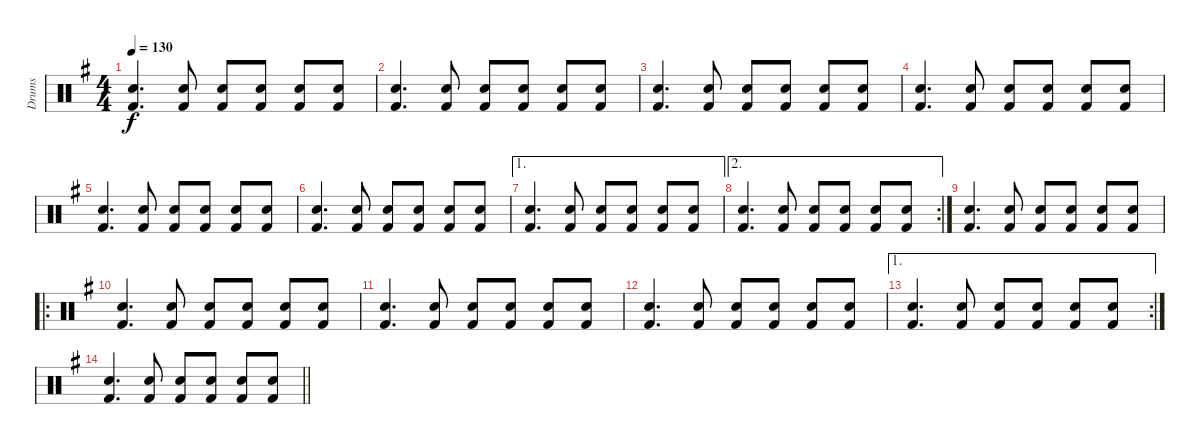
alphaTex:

\track ("Drums" "Drums") {instrument percussion}
\staff {score}
\articulation defaults
\ts (4 4)
\tempo 130
\clef neutral
\ks g
("Snare (hit) 2" "Kick (hit) 2").4{d dy f} ("Snare (hit) 2" "Kick (hit) 2").8 ("Snare (hit) 2" "Kick (hit) 2").8 ("Snare (hit) 2" "Kick (hit) 2").8 ("Snare (hit) 2" "Kick (hit) 2").8 ("Snare (hit) 2" "Kick (hit) 2").8 |
("Snare (hit) 2" "Kick (hit) 2").4{d} ("Snare (hit) 2" "Kick (hit) 2").8 ("Snare (hit) 2" "Kick (hit) 2").8 ("Snare (hit) 2" "Kick (hit) 2").8 ("Snare (hit) 2" "Kick (hit) 2").8 ("Snare (hit) 2" "Kick (hit) 2").8 |
("Snare (hit) 2" "Kick (hit) 2").4{d} ("Snare (hit) 2" "Kick (hit) 2").8 ("Snare (hit) 2" "Kick (hit) 2").8 ("Snare (hit) 2" "Kick (hit) 2").8 ("Snare (hit) 2" "Kick (hit) 2").8 ("Snare (hit) 2" "Kick (hit) 2").8 |
("Snare (hit) 2" "Kick (hit) 2").4{d} ("Snare (hit) 2" "Kick (hit) 2").8 ("Snare (hit) 2" "Kick (hit) 2").8 ("Snare (hit) 2" "Kick (hit) 2").8 ("Snare (hit) 2" "Kick (hit) 2").8 ("Snare (hit) 2" "Kick (hit) 2").8 |
("Snare (hit) 2" "Kick (hit) 2").4{d} ("Snare (hit) 2" "Kick (hit) 2").8 ("Snare (hit) 2" "Kick (hit) 2").8 ("Snare (hit) 2" "Kick (hit) 2").8 ("Snare (hit) 2" "Kick (hit) 2").8 ("Snare (hit) 2" "Kick (hit) 2").8 |
("Snare (hit) 2" "Kick (hit) 2").4{d} ("Snare (hit) 2" "Kick (hit) 2").8 ("Snare (hit) 2" "Kick (hit) 2").8 ("Snare (hit) 2" "Kick (hit) 2").8 ("Snare (hit) 2" "Kick (hit) 2").8 ("Snare (hit) 2" "Kick (hit) 2").8 |
\ae 1
("Snare (hit) 2" "Kick (hit) 2").4{d} ("Snare (hit) 2" "Kick (hit) 2").8 ("Snare (hit) 2" "Kick (hit) 2").8 ("Snare (hit) 2" "Kick (hit) 2").8 ("Snare (hit) 2" "Kick (hit) 2").8 ("Snare (hit) 2" "Kick (hit) 2").8 |
\ae 2
\rc 2
("Snare (hit) 2" "Kick (hit) 2").4{d} ("Snare (hit) 2" "Kick (hit) 2").8 ("Snare (hit) 2" "Kick (hit) 2").8 ("Snare (hit) 2" "Kick (hit) 2").8 ("Snare (hit) 2" "Kick (hit) 2").8 ("Snare (hit) 2" "Kick (hit) 2").8 |
("Snare (hit) 2" "Kick (hit) 2").4{d} ("Snare (hit) 2" "Kick (hit) 2").8 ("Snare (hit) 2" "Kick (hit) 2").8 ("Snare (hit) 2" "Kick (hit) 2").8 ("Snare (hit) 2" "Kick (hit) 2").8 ("Snare (hit) 2" "Kick (hit) 2").8 |
\ro
("Snare (hit) 2" "Kick (hit) 2").4{d} ("Snare (hit) 2" "Kick (hit) 2").8 ("Snare (hit) 2" "Kick (hit) 2").8 ("Snare (hit) 2" "Kick (hit) 2").8 ("Snare (hit) 2" "Kick (hit) 2").8 ("Snare (hit) 2" "Kick (hit) 2").8 |
("Snare (hit) 2" "Kick (hit) 2").4{d} ("Snare (hit) 2" "Kick (hit) 2").8 ("Snare (hit) 2" "Kick (hit) 2").8 ("Snare (hit) 2" "Kick (hit) 2").8 ("Snare (hit) 2" "Kick (hit) 2").8 ("Snare (hit) 2" "Kick (hit) 2").8 |
("Snare (hit) 2" "Kick (hit) 2").4{d} ("Snare (hit) 2" "Kick (hit) 2").8 ("Snare (hit) 2" "Kick (hit) 2").8 ("Snare (hit) 2" "Kick (hit) 2").8 ("Snare (hit) 2" "Kick (hit) 2").8 ("Snare (hit) 2" "Kick (hit) 2").8 |
\ae 1
\rc 2
("Snare (hit) 2" "Kick (hit) 2").4{d} ("Snare (hit) 2" "Kick (hit) 2").8 ("Snare (hit) 2" "Kick (hit) 2").8 ("Snare (hit) 2" "Kick (hit) 2").8 ("Snare (hit) 2" "Kick (hit) 2").8 ("Snare (hit) 2" "Kick (hit) 2").8 |
\barLineRight lightlight
("Snare (hit) 2" "Kick (hit) 2").4{d} ("Snare (hit) 2" "Kick (hit) 2").8 ("Snare (hit) 2" "Kick (hit) 2").8 ("Snare (hit) 2" "Kick (hit) 2").8 ("Snare (hit) 2" "Kick (hit) 2").8 ("Snare (hit) 2" "Kick (hit) 2").8
